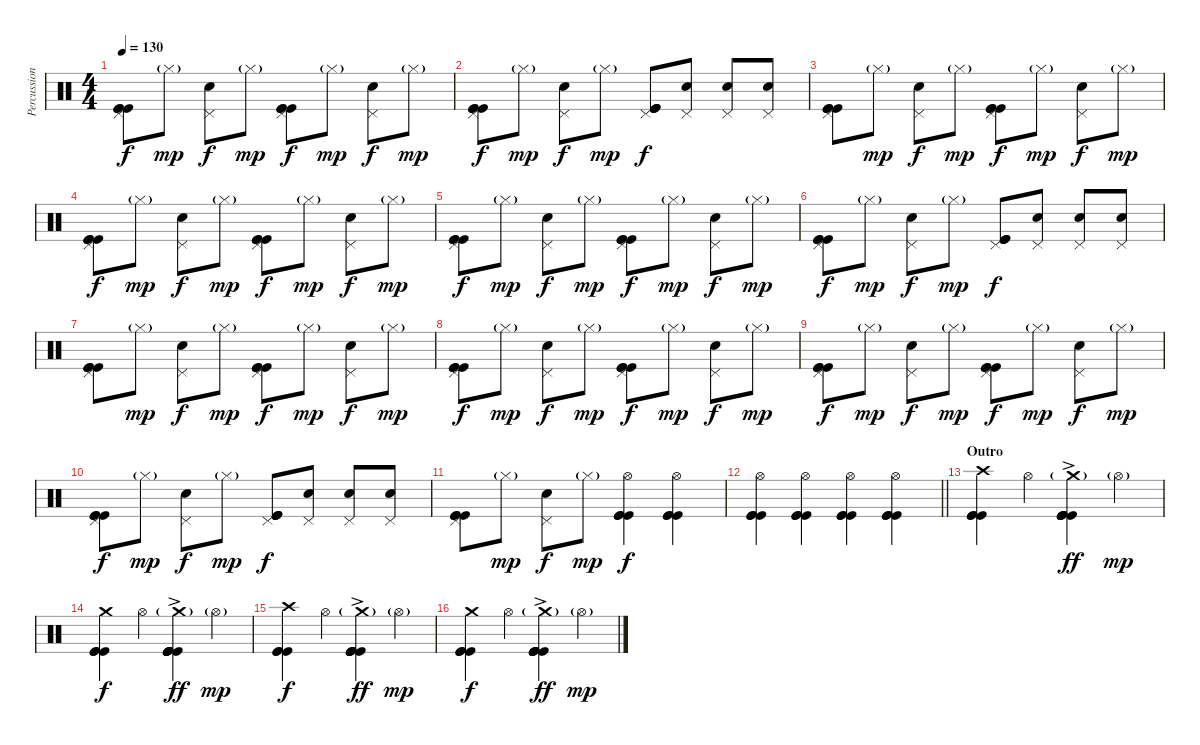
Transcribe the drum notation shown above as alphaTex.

\track ("Percussion" "Percussion") {instrument percussion}
\staff {score}
\articulation defaults
\ts (4 4)
\tempo 130
\clef neutral
\ks c
("Pedal Hi-Hat (hit)" "Kick (hit)" "Kick (hit)" "Kick (hit)").8{dy f} "Hi-Hat (closed)"{g}.8{dy mp} ("Pedal Hi-Hat (hit)" "Snare (hit) 2").8{dy f} "Hi-Hat (closed)"{g}.8{dy mp} ("Pedal Hi-Hat (hit)" "Kick (hit)" "Kick (hit)" "Kick (hit)").8{dy f} "Hi-Hat (closed)"{g}.8{dy mp} ("Pedal Hi-Hat (hit)" "Snare (hit) 2").8{dy f} "Hi-Hat (closed)"{g}.8{dy mp} |
("Pedal Hi-Hat (hit)" "Kick (hit)" "Kick (hit)" "Kick (hit)").8{dy f} "Hi-Hat (closed)"{g}.8{dy mp} ("Pedal Hi-Hat (hit)" "Snare (hit) 2").8{dy f} "Hi-Hat (closed)"{g}.8{dy mp} ("Pedal Hi-Hat (hit)" "Kick (hit)" "Kick (hit)" "Kick (hit)").8{dy f} ("Pedal Hi-Hat (hit)" "Snare (hit) 2").8 ("Pedal Hi-Hat (hit)" "Snare (hit) 2").8 ("Pedal Hi-Hat (hit)" "Snare (hit) 2").8 |
("Pedal Hi-Hat (hit)" "Kick (hit)" "Kick (hit)" "Kick (hit)").8 "Hi-Hat (closed)"{g}.8{dy mp} ("Pedal Hi-Hat (hit)" "Snare (hit) 2").8{dy f} "Hi-Hat (closed)"{g}.8{dy mp} ("Pedal Hi-Hat (hit)" "Kick (hit)" "Kick (hit)" "Kick (hit)").8{dy f} "Hi-Hat (closed)"{g}.8{dy mp} ("Pedal Hi-Hat (hit)" "Snare (hit) 2").8{dy f} "Hi-Hat (closed)"{g}.8{dy mp} |
("Pedal Hi-Hat (hit)" "Kick (hit)" "Kick (hit)" "Kick (hit)").8{dy f} "Hi-Hat (closed)"{g}.8{dy mp} ("Pedal Hi-Hat (hit)" "Snare (hit) 2").8{dy f} "Hi-Hat (closed)"{g}.8{dy mp} ("Pedal Hi-Hat (hit)" "Kick (hit)" "Kick (hit)" "Kick (hit)").8{dy f} "Hi-Hat (closed)"{g}.8{dy mp} ("Pedal Hi-Hat (hit)" "Snare (hit) 2").8{dy f} "Hi-Hat (closed)"{g}.8{dy mp} |
("Pedal Hi-Hat (hit)" "Kick (hit)" "Kick (hit)" "Kick (hit)").8{dy f} "Hi-Hat (closed)"{g}.8{dy mp} ("Pedal Hi-Hat (hit)" "Snare (hit) 2").8{dy f} "Hi-Hat (closed)"{g}.8{dy mp} ("Pedal Hi-Hat (hit)" "Kick (hit)" "Kick (hit)" "Kick (hit)").8{dy f} "Hi-Hat (closed)"{g}.8{dy mp} ("Pedal Hi-Hat (hit)" "Snare (hit) 2").8{dy f} "Hi-Hat (closed)"{g}.8{dy mp} |
("Pedal Hi-Hat (hit)" "Kick (hit)" "Kick (hit)" "Kick (hit)").8{dy f} "Hi-Hat (closed)"{g}.8{dy mp} ("Pedal Hi-Hat (hit)" "Snare (hit) 2").8{dy f} "Hi-Hat (closed)"{g}.8{dy mp} ("Pedal Hi-Hat (hit)" "Kick (hit)" "Kick (hit)" "Kick (hit)").8{dy f} ("Pedal Hi-Hat (hit)" "Snare (hit) 2").8 ("Pedal Hi-Hat (hit)" "Snare (hit) 2").8 ("Pedal Hi-Hat (hit)" "Snare (hit) 2").8 |
("Pedal Hi-Hat (hit)" "Kick (hit)" "Kick (hit)" "Kick (hit)").8 "Hi-Hat (closed)"{g}.8{dy mp} ("Pedal Hi-Hat (hit)" "Snare (hit) 2").8{dy f} "Hi-Hat (closed)"{g}.8{dy mp} ("Pedal Hi-Hat (hit)" "Kick (hit)" "Kick (hit)" "Kick (hit)").8{dy f} "Hi-Hat (closed)"{g}.8{dy mp} ("Pedal Hi-Hat (hit)" "Snare (hit) 2").8{dy f} "Hi-Hat (closed)"{g}.8{dy mp} |
("Pedal Hi-Hat (hit)" "Kick (hit)" "Kick (hit)" "Kick (hit)").8{dy f} "Hi-Hat (closed)"{g}.8{dy mp} ("Pedal Hi-Hat (hit)" "Snare (hit) 2").8{dy f} "Hi-Hat (closed)"{g}.8{dy mp} ("Pedal Hi-Hat (hit)" "Kick (hit)" "Kick (hit)" "Kick (hit)").8{dy f} "Hi-Hat (closed)"{g}.8{dy mp} ("Pedal Hi-Hat (hit)" "Snare (hit) 2").8{dy f} "Hi-Hat (closed)"{g}.8{dy mp} |
("Pedal Hi-Hat (hit)" "Kick (hit)" "Kick (hit)" "Kick (hit)").8{dy f} "Hi-Hat (closed)"{g}.8{dy mp} ("Pedal Hi-Hat (hit)" "Snare (hit) 2").8{dy f} "Hi-Hat (closed)"{g}.8{dy mp} ("Pedal Hi-Hat (hit)" "Kick (hit)" "Kick (hit)" "Kick (hit)").8{dy f} "Hi-Hat (closed)"{g}.8{dy mp} ("Pedal Hi-Hat (hit)" "Snare (hit) 2").8{dy f} "Hi-Hat (closed)"{g}.8{dy mp} |
("Pedal Hi-Hat (hit)" "Kick (hit)" "Kick (hit)" "Kick (hit)").8{dy f} "Hi-Hat (closed)"{g}.8{dy mp} ("Pedal Hi-Hat (hit)" "Snare (hit) 2").8{dy f} "Hi-Hat (closed)"{g}.8{dy mp} ("Pedal Hi-Hat (hit)" "Kick (hit)" "Kick (hit)" "Kick (hit)").8{dy f} ("Pedal Hi-Hat (hit)" "Snare (hit) 2").8 ("Pedal Hi-Hat (hit)" "Snare (hit) 2").8 ("Pedal Hi-Hat (hit)" "Snare (hit) 2").8 |
("Pedal Hi-Hat (hit)" "Kick (hit)" "Kick (hit)" "Kick (hit)").8 "Hi-Hat (closed)"{g}.8{dy mp} ("Pedal Hi-Hat (hit)" "Snare (hit) 2").8{dy f} "Hi-Hat (closed)"{g}.8{dy mp} ("Hi-Hat (open)" "Kick (hit)" "Kick (hit)" "Kick (hit)").4{dy f} ("Hi-Hat (open)" "Kick (hit)" "Kick (hit)" "Kick (hit)").4 |
\barLineRight lightlight
("Hi-Hat (open)" "Kick (hit)" "Kick (hit)" "Kick (hit)").4{volume 16} ("Hi-Hat (open)" "Kick (hit)" "Kick (hit)" "Kick (hit)").4 ("Hi-Hat (open)" "Kick (hit)" "Kick (hit)" "Kick (hit)").4 ("Hi-Hat (open)" "Kick (hit)" "Kick (hit)" "Kick (hit)").4 |
\section ("" "Outro")
("Crash high (hit)" "Kick (hit)" "Kick (hit)" "Kick (hit)").4{volume 13} "Hi-Hat (open)".4 ("Crash medium (hit)"{g} "Kick (hit)"{ac} "Kick (hit)"{ac} "Kick (hit)"{ac} "Kick (hit)"{ac} "Kick (hit)"{ac}).4{dy ff} "Hi-Hat (open)"{g}.4{dy mp} |
("Crash medium (hit)" "Kick (hit)" "Kick (hit)" "Kick (hit)").4{dy f} "Hi-Hat (open)".4 ("Crash medium (hit)"{g} "Kick (hit)"{ac} "Kick (hit)"{ac} "Kick (hit)"{ac} "Kick (hit)"{ac} "Kick (hit)"{ac}).4{dy ff} "Hi-Hat (open)"{g}.4{dy mp} |
("Crash high (hit)" "Kick (hit)" "Kick (hit)" "Kick (hit)").4{dy f} "Hi-Hat (open)".4 ("Crash medium (hit)"{g} "Kick (hit)"{ac} "Kick (hit)"{ac} "Kick (hit)"{ac} "Kick (hit)"{ac} "Kick (hit)"{ac}).4{dy ff} "Hi-Hat (open)"{g}.4{dy mp} |
("Crash medium (hit)" "Kick (hit)" "Kick (hit)" "Kick (hit)").4{dy f} "Hi-Hat (open)".4 ("Crash medium (hit)"{g} "Kick (hit)"{ac} "Kick (hit)"{ac} "Kick (hit)"{ac} "Kick (hit)"{ac} "Kick (hit)"{ac}).4{dy ff} "Hi-Hat (open)"{g}.4{dy mp}
